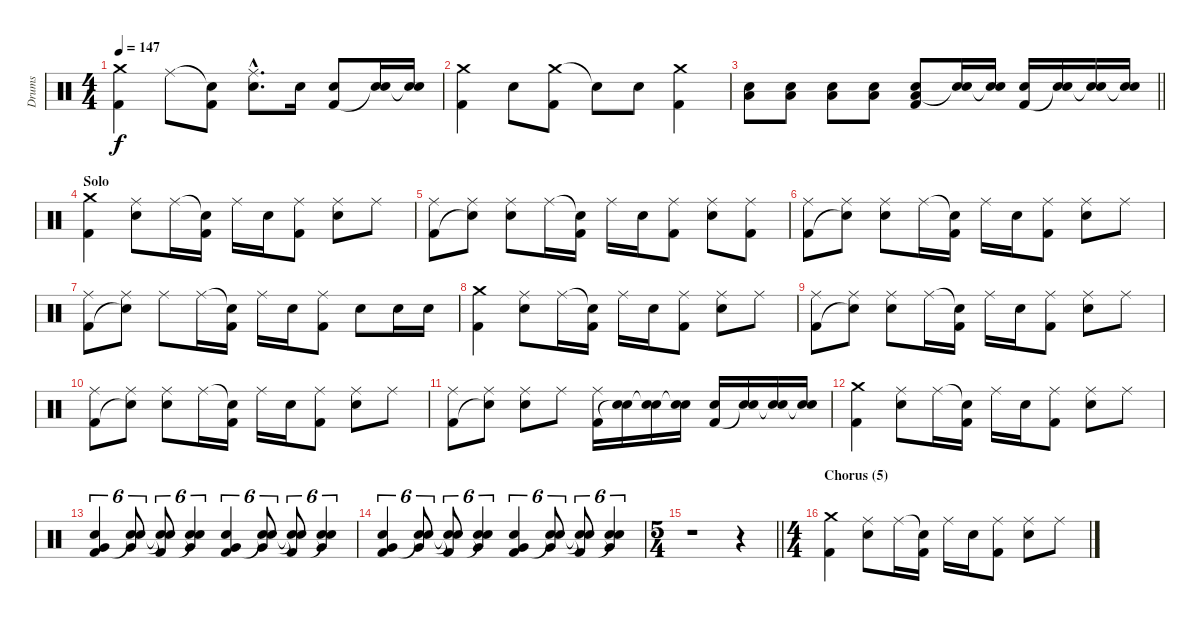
\track ("Drums" "Drums") {instrument percussion}
\staff {score}
\articulation defaults
\ts (4 4)
\tempo 147
\clef neutral
\ks aminor
("Crash medium (hit)" "Kick (hit) 2").4{dy f} "Ride (middle)".8 ("Snare (hit)"{t} "Kick (hit) 2").8 ("Ride (middle)"{hac} "Electric Snare (hit)"{hac}).8{d} "Electric Snare (hit)".16 ("Electric Snare (hit)" "Kick (hit) 2").8 ("Electric Snare (hit)" "Snare (hit)"{t}).16 ("Electric Snare (hit)" "Snare (hit)"{t}).16 |
("Crash medium (hit)" "Kick (hit) 2").4 "Electric Snare (hit)".8 ("Crash medium (hit)" "Kick (hit) 2").8 "Snare (hit)"{t}.8 "Electric Snare (hit)".8 ("Crash medium (hit)" "Kick (hit) 2").4 |
\barLineRight lightlight
("Electric Snare (hit)" "Low Floor Tom (hit)").8 ("Electric Snare (hit)" "Low Floor Tom (hit)").8 ("Electric Snare (hit)" "Low Floor Tom (hit)").8 ("Electric Snare (hit)" "Low Floor Tom (hit)").8 ("Electric Snare (hit)" "Low Floor Tom (hit)" "Kick (hit) 2").8 ("Electric Snare (hit)" "Snare (hit)"{t}).16 ("Electric Snare (hit)" "Snare (hit)"{t}).16 ("Electric Snare (hit)" "Kick (hit) 2").16 ("Electric Snare (hit)" "Snare (hit)"{t}).16 ("Electric Snare (hit)" "Snare (hit)"{t}).16 ("Electric Snare (hit)" "Snare (hit)"{t}).16 |
\section ("" "Solo")
("Crash medium (hit)" "Kick (hit) 2").4 ("Ride (middle)" "Electric Snare (hit)").8 "Ride (middle)".16 ("Snare (hit)"{t} "Kick (hit) 2").16 "Ride (middle)".16 "Electric Snare (hit)".16 ("Ride (middle)" "Kick (hit) 2").8 ("Ride (middle)" "Electric Snare (hit)").8 "Ride (middle)".8 |
("Ride (middle)" "Kick (hit) 2").8 ("Ride (middle)" "Snare (hit)"{t}).8 ("Ride (middle)" "Electric Snare (hit)").8 "Ride (middle)".16 ("Snare (hit)"{t} "Kick (hit) 2").16 "Ride (middle)".16 "Electric Snare (hit)".16 ("Ride (middle)" "Kick (hit) 2").8 ("Ride (middle)" "Electric Snare (hit)").8 ("Ride (middle)" "Kick (hit) 2").8 |
("Ride (middle)" "Kick (hit) 2").8 ("Ride (middle)" "Snare (hit)"{t}).8 ("Ride (middle)" "Electric Snare (hit)").8 "Ride (middle)".16 ("Snare (hit)"{t} "Kick (hit) 2").16 "Ride (middle)".16 "Electric Snare (hit)".16 ("Ride (middle)" "Kick (hit) 2").8 ("Ride (middle)" "Electric Snare (hit)").8 "Ride (middle)".8 |
("Ride (middle)" "Kick (hit) 2").8 ("Ride (middle)" "Snare (hit)"{t}).8 "Ride (middle)".8 "Ride (middle)".16 ("Snare (hit)"{t} "Kick (hit) 2").16 "Ride (middle)".16 "Electric Snare (hit)".16 ("Ride (middle)" "Kick (hit) 2").8 "Electric Snare (hit)".8 "Electric Snare (hit)".16 "Electric Snare (hit)".16 |
("Crash medium (hit)" "Kick (hit) 2").4 ("Ride (middle)" "Electric Snare (hit)").8 "Ride (middle)".16 ("Snare (hit)"{t} "Kick (hit) 2").16 "Ride (middle)".16 "Electric Snare (hit)".16 ("Ride (middle)" "Kick (hit) 2").8 ("Ride (middle)" "Electric Snare (hit)").8 "Ride (middle)".8 |
("Ride (middle)" "Kick (hit) 2").8 ("Ride (middle)" "Snare (hit)"{t}).8 ("Ride (middle)" "Electric Snare (hit)").8 "Ride (middle)".16 ("Snare (hit)"{t} "Kick (hit) 2").16 "Ride (middle)".16 "Electric Snare (hit)".16 ("Ride (middle)" "Kick (hit) 2").8 ("Ride (middle)" "Electric Snare (hit)").8 "Ride (middle)".8 |
("Ride (middle)" "Kick (hit) 2").8 ("Ride (middle)" "Snare (hit)"{t}).8 ("Ride (middle)" "Electric Snare (hit)").8 "Ride (middle)".16 ("Snare (hit)"{t} "Kick (hit) 2").16 "Ride (middle)".16 "Electric Snare (hit)".16 ("Ride (middle)" "Kick (hit) 2").8 ("Ride (middle)" "Electric Snare (hit)").8 "Ride (middle)".8 |
("Ride (middle)" "Kick (hit) 2").8 ("Ride (middle)" "Snare (hit)"{t}).8 ("Ride (middle)" "Electric Snare (hit)").8 "Ride (middle)".8 ("Ride (middle)" "Kick (hit) 2").16 ("Electric Snare (hit)" "Snare (hit)"{t}).16 ("Electric Snare (hit)" "Snare (hit)"{t}).16 ("Electric Snare (hit)" "Snare (hit)"{t}).16 ("Electric Snare (hit)" "Kick (hit) 2").16 ("Electric Snare (hit)" "Snare (hit)"{t}).16 ("Electric Snare (hit)" "Snare (hit)"{t}).16 ("Electric Snare (hit)" "Snare (hit)"{t}).16 |
("Crash medium (hit)" "Kick (hit) 2").4 ("Ride (middle)" "Electric Snare (hit)").8 "Ride (middle)".16 ("Snare (hit)"{t} "Kick (hit) 2").16 "Ride (middle)".16 "Electric Snare (hit)".16 ("Ride (middle)" "Kick (hit) 2").8 ("Ride (middle)" "Electric Snare (hit)").8 "Ride (middle)".8 |
("Electric Snare (hit)" "Very Low Tom (hit)" "Kick (hit) 2").4{tu (6 4)} ("Electric Snare (hit)" "Very Low Tom (hit)" "Snare (hit)"{t}).8{tu (6 4)} ("Snare (hit)"{t} "Snare (hit)"{t} "Kick (hit) 2").8{tu (6 4)} ("Electric Snare (hit)" "Very Low Tom (hit)" "Snare (hit)"{t}).4{tu (6 4)} ("Electric Snare (hit)" "Very Low Tom (hit)" "Kick (hit) 2").4{tu (6 4)} ("Electric Snare (hit)" "Very Low Tom (hit)" "Snare (hit)"{t}).8{tu (6 4)} ("Snare (hit)"{t} "Snare (hit)"{t} "Kick (hit) 2").8{tu (6 4)} ("Electric Snare (hit)" "Very Low Tom (hit)" "Snare (hit)"{t}).4{tu (6 4)} |
("Electric Snare (hit)" "Very Low Tom (hit)" "Kick (hit) 2").4{tu (6 4)} ("Electric Snare (hit)" "Very Low Tom (hit)" "Snare (hit)"{t}).8{tu (6 4)} ("Snare (hit)"{t} "Snare (hit)"{t} "Kick (hit) 2").8{tu (6 4)} ("Electric Snare (hit)" "Very Low Tom (hit)" "Snare (hit)"{t}).4{tu (6 4)} ("Electric Snare (hit)" "Very Low Tom (hit)" "Kick (hit) 2").4{tu (6 4)} ("Electric Snare (hit)" "Very Low Tom (hit)" "Snare (hit)"{t}).8{tu (6 4)} ("Snare (hit)"{t} "Snare (hit)"{t} "Kick (hit) 2").8{tu (6 4)} ("Electric Snare (hit)" "Very Low Tom (hit)" "Snare (hit)"{t}).4{tu (6 4)} |
\ts (5 4)
\barLineRight lightlight
r.1 r.4 |
\ts (4 4)
\section ("" "Chorus (5)")
("Crash medium (hit)" "Kick (hit) 2").4 ("Ride (middle)" "Electric Snare (hit)").8 "Ride (middle)".16 ("Snare (hit)"{t} "Kick (hit) 2").16 "Ride (middle)".16 "Electric Snare (hit)".16 ("Ride (middle)" "Kick (hit) 2").8 ("Ride (middle)" "Electric Snare (hit)").8 "Ride (middle)".8
